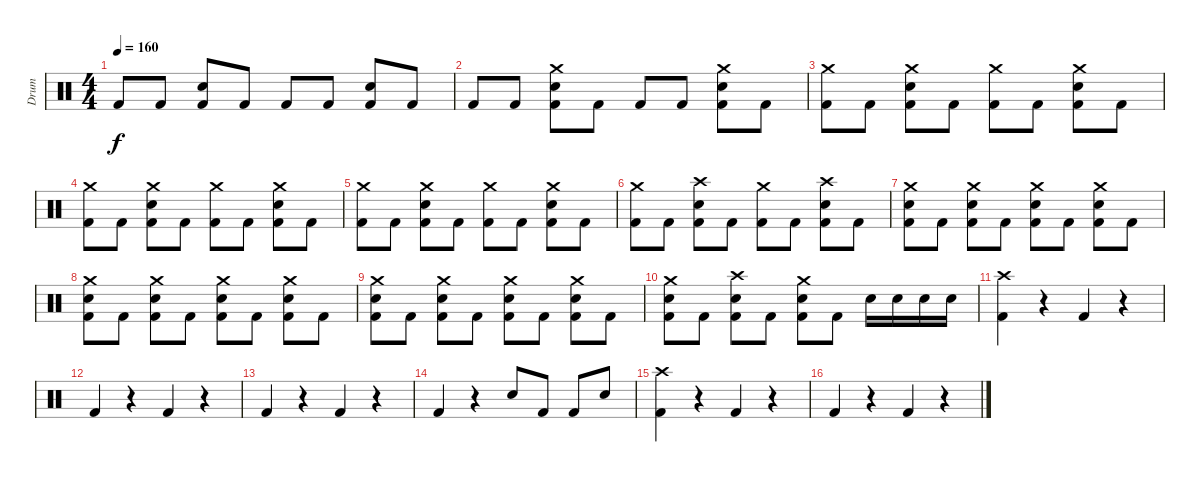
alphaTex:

\track ("Drum" "Drum") {instrument percussion}
\staff {score}
\articulation defaults
\ts (4 4)
\tempo 160
\clef neutral
\ks c "Kick (hit) 2".8{dy f} "Kick (hit) 2".8
("Electric Snare (hit)" "Kick (hit) 2").8 "Kick (hit) 2".8 "Kick (hit) 2".8 "Kick (hit) 2".8 ("Electric Snare (hit)" "Kick (hit) 2").8 "Kick (hit) 2".8 |
"Kick (hit) 2".8 "Kick (hit) 2".8 ("Crash medium (hit)" "Electric Snare (hit)" "Kick (hit) 2").8 "Kick (hit) 2".8 "Kick (hit) 2".8 "Kick (hit) 2".8 ("Crash medium (hit)" "Electric Snare (hit)" "Kick (hit) 2").8 "Kick (hit) 2".8 |
("Crash medium (hit)" "Kick (hit) 2").8 "Kick (hit) 2".8 ("Crash medium (hit)" "Electric Snare (hit)" "Kick (hit) 2").8 "Kick (hit) 2".8 ("Crash medium (hit)" "Kick (hit) 2").8 "Kick (hit) 2".8 ("Crash medium (hit)" "Electric Snare (hit)" "Kick (hit) 2").8 "Kick (hit) 2".8 |
("Crash medium (hit)" "Kick (hit) 2").8 "Kick (hit) 2".8 ("Crash medium (hit)" "Electric Snare (hit)" "Kick (hit) 2").8 "Kick (hit) 2".8 ("Crash medium (hit)" "Kick (hit) 2").8 "Kick (hit) 2".8 ("Crash medium (hit)" "Electric Snare (hit)" "Kick (hit) 2").8 "Kick (hit) 2".8 |
("Crash medium (hit)" "Kick (hit) 2").8 "Kick (hit) 2".8 ("Crash medium (hit)" "Electric Snare (hit)" "Kick (hit) 2").8 "Kick (hit) 2".8 ("Crash medium (hit)" "Kick (hit) 2").8 "Kick (hit) 2".8 ("Crash medium (hit)" "Electric Snare (hit)" "Kick (hit) 2").8 "Kick (hit) 2".8 |
("Crash medium (hit)" "Kick (hit) 2").8 "Kick (hit) 2".8 ("Crash high (hit)" "Electric Snare (hit)" "Kick (hit) 2").8 "Kick (hit) 2".8 ("Crash medium (hit)" "Kick (hit) 2").8 "Kick (hit) 2".8 ("Crash high (hit)" "Electric Snare (hit)" "Kick (hit) 2").8 "Kick (hit) 2".8 |
("Crash medium (hit)" "Electric Snare (hit)" "Kick (hit) 2").8 "Kick (hit) 2".8 ("Crash medium (hit)" "Electric Snare (hit)" "Kick (hit) 2").8 "Kick (hit) 2".8 ("Crash medium (hit)" "Electric Snare (hit)" "Kick (hit) 2").8 "Kick (hit) 2".8 ("Crash medium (hit)" "Electric Snare (hit)" "Kick (hit) 2").8 "Kick (hit) 2".8 |
("Crash medium (hit)" "Electric Snare (hit)" "Kick (hit) 2").8 "Kick (hit) 2".8 ("Crash medium (hit)" "Electric Snare (hit)" "Kick (hit) 2").8 "Kick (hit) 2".8 ("Crash medium (hit)" "Electric Snare (hit)" "Kick (hit) 2").8 "Kick (hit) 2".8 ("Crash medium (hit)" "Electric Snare (hit)" "Kick (hit) 2").8 "Kick (hit) 2".8 |
("Crash medium (hit)" "Electric Snare (hit)" "Kick (hit) 2").8 "Kick (hit) 2".8 ("Crash medium (hit)" "Electric Snare (hit)" "Kick (hit) 2").8 "Kick (hit) 2".8 ("Crash medium (hit)" "Electric Snare (hit)" "Kick (hit) 2").8 "Kick (hit) 2".8 ("Crash medium (hit)" "Electric Snare (hit)" "Kick (hit) 2").8 "Kick (hit) 2".8 |
("Crash medium (hit)" "Electric Snare (hit)" "Kick (hit) 2").8 "Kick (hit) 2".8 ("Crash high (hit)" "Electric Snare (hit)" "Kick (hit) 2").8 "Kick (hit) 2".8 ("Crash medium (hit)" "Electric Snare (hit)" "Kick (hit) 2").8 "Kick (hit) 2".8 "Electric Snare (hit)".16 "Electric Snare (hit)".16 "Electric Snare (hit)".16 "Electric Snare (hit)".16 |
("Crash high (hit)" "Kick (hit) 2").4 r.4 "Kick (hit) 2".4 r.4 |
"Kick (hit) 2".4 r.4 "Kick (hit) 2".4 r.4 |
"Kick (hit) 2".4 r.4 "Kick (hit) 2".4 r.4 |
"Kick (hit) 2".4 r.4 "Electric Snare (hit)".8 "Kick (hit) 2".8 "Kick (hit) 2".8 "Electric Snare (hit)".8 |
("Crash high (hit)" "Kick (hit) 2").4 r.4 "Kick (hit) 2".4 r.4 |
"Kick (hit) 2".4 r.4 "Kick (hit) 2".4 r.4
